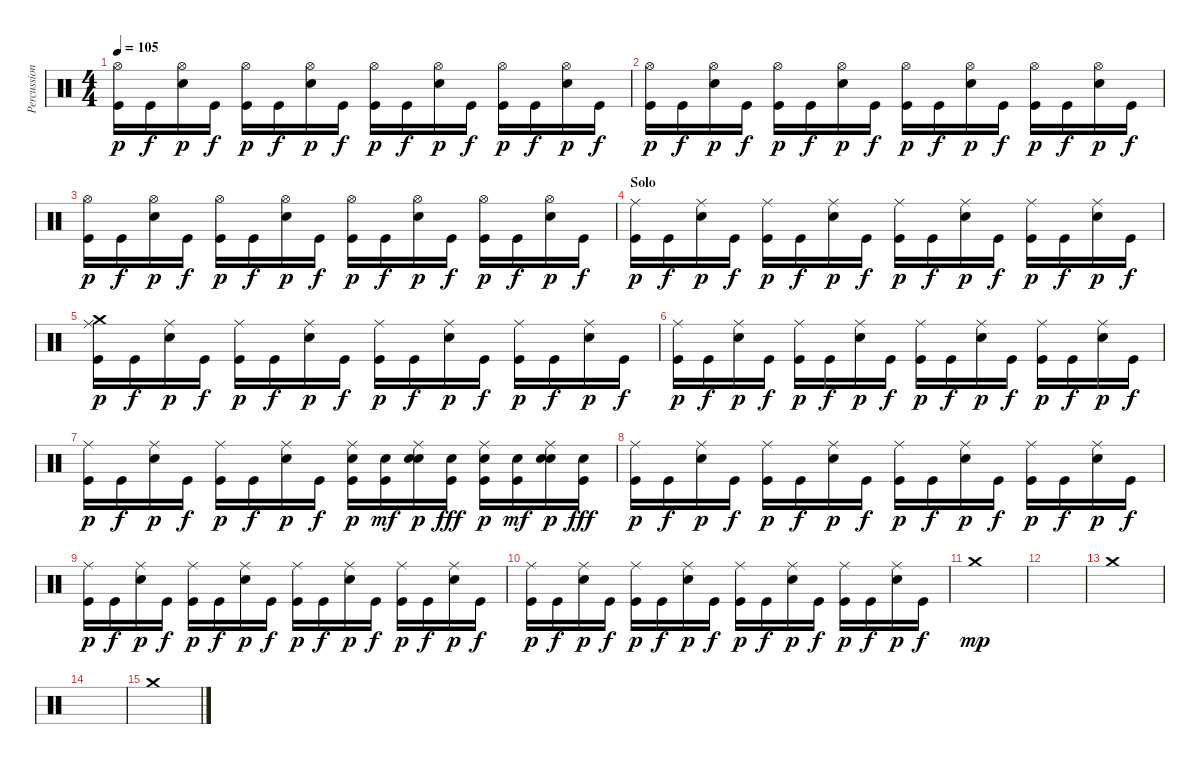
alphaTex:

\track ("Percussion" "Percussion") {instrument percussion}
\staff {score}
\articulation defaults
\ts (4 4)
\tempo 105
\clef neutral
\ks c
("Hi-Hat (open)" "Kick (hit)").16{dy p} "Kick (hit)".16{dy f} ("Hi-Hat (open)" "Electric Snare (hit)").16{dy p} "Kick (hit)".16{dy f} ("Hi-Hat (open)" "Kick (hit)").16{dy p} "Kick (hit)".16{dy f} ("Hi-Hat (open)" "Electric Snare (hit)").16{dy p} "Kick (hit)".16{dy f} ("Hi-Hat (open)" "Kick (hit)").16{dy p} "Kick (hit)".16{dy f} ("Hi-Hat (open)" "Electric Snare (hit)").16{dy p} "Kick (hit)".16{dy f} ("Hi-Hat (open)" "Kick (hit)").16{dy p} "Kick (hit)".16{dy f} ("Hi-Hat (open)" "Electric Snare (hit)").16{dy p} "Kick (hit)".16{dy f} |
("Hi-Hat (open)" "Kick (hit)").16{dy p} "Kick (hit)".16{dy f} ("Hi-Hat (open)" "Electric Snare (hit)").16{dy p} "Kick (hit)".16{dy f} ("Hi-Hat (open)" "Kick (hit)").16{dy p} "Kick (hit)".16{dy f} ("Hi-Hat (open)" "Electric Snare (hit)").16{dy p} "Kick (hit)".16{dy f} ("Hi-Hat (open)" "Kick (hit)").16{dy p} "Kick (hit)".16{dy f} ("Hi-Hat (open)" "Electric Snare (hit)").16{dy p} "Kick (hit)".16{dy f} ("Hi-Hat (open)" "Kick (hit)").16{dy p} "Kick (hit)".16{dy f} ("Hi-Hat (open)" "Electric Snare (hit)").16{dy p} "Kick (hit)".16{dy f} |
("Hi-Hat (open)" "Kick (hit)").16{dy p} "Kick (hit)".16{dy f} ("Hi-Hat (open)" "Electric Snare (hit)").16{dy p} "Kick (hit)".16{dy f} ("Hi-Hat (open)" "Kick (hit)").16{dy p} "Kick (hit)".16{dy f} ("Hi-Hat (open)" "Electric Snare (hit)").16{dy p} "Kick (hit)".16{dy f} ("Hi-Hat (open)" "Kick (hit)").16{dy p} "Kick (hit)".16{dy f} ("Hi-Hat (open)" "Electric Snare (hit)").16{dy p} "Kick (hit)".16{dy f} ("Hi-Hat (open)" "Kick (hit)").16{dy p} "Kick (hit)".16{dy f} ("Hi-Hat (open)" "Electric Snare (hit)").16{dy p} "Kick (hit)".16{dy f} |
\section ("" "Solo")
("Ride (middle)" "Kick (hit)").16{dy p} "Kick (hit)".16{dy f} ("Ride (middle)" "Electric Snare (hit)").16{dy p} "Kick (hit)".16{dy f} ("Ride (middle)" "Kick (hit)").16{dy p} "Kick (hit)".16{dy f} ("Ride (middle)" "Electric Snare (hit)").16{dy p} "Kick (hit)".16{dy f} ("Ride (middle)" "Kick (hit)").16{dy p} "Kick (hit)".16{dy f} ("Ride (middle)" "Electric Snare (hit)").16{dy p} "Kick (hit)".16{dy f} ("Ride (middle)" "Kick (hit)").16{dy p} "Kick (hit)".16{dy f} ("Ride (middle)" "Electric Snare (hit)").16{dy p} "Kick (hit)".16{dy f} |
("Crash medium (hit)" "Ride (middle)" "Kick (hit)").16{dy p} "Kick (hit)".16{dy f} ("Ride (middle)" "Electric Snare (hit)").16{dy p} "Kick (hit)".16{dy f} ("Ride (middle)" "Kick (hit)").16{dy p} "Kick (hit)".16{dy f} ("Ride (middle)" "Electric Snare (hit)").16{dy p} "Kick (hit)".16{dy f} ("Ride (middle)" "Kick (hit)").16{dy p} "Kick (hit)".16{dy f} ("Ride (middle)" "Electric Snare (hit)").16{dy p} "Kick (hit)".16{dy f} ("Ride (middle)" "Kick (hit)").16{dy p} "Kick (hit)".16{dy f} ("Ride (middle)" "Electric Snare (hit)").16{dy p} "Kick (hit)".16{dy f} |
("Ride (middle)" "Kick (hit)").16{dy p} "Kick (hit)".16{dy f} ("Ride (middle)" "Electric Snare (hit)").16{dy p} "Kick (hit)".16{dy f} ("Ride (middle)" "Kick (hit)").16{dy p} "Kick (hit)".16{dy f} ("Ride (middle)" "Electric Snare (hit)").16{dy p} "Kick (hit)".16{dy f} ("Ride (middle)" "Kick (hit)").16{dy p} "Kick (hit)".16{dy f} ("Ride (middle)" "Electric Snare (hit)").16{dy p} "Kick (hit)".16{dy f} ("Ride (middle)" "Kick (hit)").16{dy p} "Kick (hit)".16{dy f} ("Ride (middle)" "Electric Snare (hit)").16{dy p} "Kick (hit)".16{dy f} |
("Ride (middle)" "Kick (hit)").16{dy p} "Kick (hit)".16{dy f} ("Ride (middle)" "Electric Snare (hit)").16{dy p} "Kick (hit)".16{dy f} ("Ride (middle)" "Kick (hit)").16{dy p} "Kick (hit)".16{dy f} ("Ride (middle)" "Electric Snare (hit)").16{dy p} "Kick (hit)".16{dy f} ("Electric Snare (hit)" "Ride (middle)" "Kick (hit)").16{dy p} ("Electric Snare (hit)" "Kick (hit)").16{dy mf} ("Electric Snare (hit)" "Ride (middle)" "Electric Snare (hit)").16{dy p} ("Electric Snare (hit)" "Kick (hit)").16{dy fff} ("Electric Snare (hit)" "Ride (middle)" "Kick (hit)").16{dy p} ("Electric Snare (hit)" "Kick (hit)").16{dy mf} ("Electric Snare (hit)" "Ride (middle)" "Electric Snare (hit)").16{dy p} ("Electric Snare (hit)" "Kick (hit)").16{dy fff} |
("Ride (middle)" "Kick (hit)").16{dy p} "Kick (hit)".16{dy f} ("Ride (middle)" "Electric Snare (hit)").16{dy p} "Kick (hit)".16{dy f} ("Ride (middle)" "Kick (hit)").16{dy p} "Kick (hit)".16{dy f} ("Ride (middle)" "Electric Snare (hit)").16{dy p} "Kick (hit)".16{dy f} ("Ride (middle)" "Kick (hit)").16{dy p} "Kick (hit)".16{dy f} ("Ride (middle)" "Electric Snare (hit)").16{dy p} "Kick (hit)".16{dy f} ("Ride (middle)" "Kick (hit)").16{dy p} "Kick (hit)".16{dy f} ("Ride (middle)" "Electric Snare (hit)").16{dy p} "Kick (hit)".16{dy f} |
("Ride (middle)" "Kick (hit)").16{dy p} "Kick (hit)".16{dy f} ("Ride (middle)" "Electric Snare (hit)").16{dy p} "Kick (hit)".16{dy f} ("Ride (middle)" "Kick (hit)").16{dy p} "Kick (hit)".16{dy f} ("Ride (middle)" "Electric Snare (hit)").16{dy p} "Kick (hit)".16{dy f} ("Ride (middle)" "Kick (hit)").16{dy p} "Kick (hit)".16{dy f} ("Ride (middle)" "Electric Snare (hit)").16{dy p} "Kick (hit)".16{dy f} ("Ride (middle)" "Kick (hit)").16{dy p} "Kick (hit)".16{dy f} ("Ride (middle)" "Electric Snare (hit)").16{dy p} "Kick (hit)".16{dy f} |
("Ride (middle)" "Kick (hit)").16{dy p} "Kick (hit)".16{dy f} ("Ride (middle)" "Electric Snare (hit)").16{dy p} "Kick (hit)".16{dy f} ("Ride (middle)" "Kick (hit)").16{dy p} "Kick (hit)".16{dy f} ("Ride (middle)" "Electric Snare (hit)").16{dy p} "Kick (hit)".16{dy f} ("Ride (middle)" "Kick (hit)").16{dy p} "Kick (hit)".16{dy f} ("Ride (middle)" "Electric Snare (hit)").16{dy p} "Kick (hit)".16{dy f} ("Ride (middle)" "Kick (hit)").16{dy p} "Kick (hit)".16{dy f} ("Ride (middle)" "Electric Snare (hit)").16{dy p} "Kick (hit)".16{dy f} |
"Crash medium (hit)".1{dy mp} |
|
"Crash medium (hit)".1 |
|
"Crash medium (hit)".1
